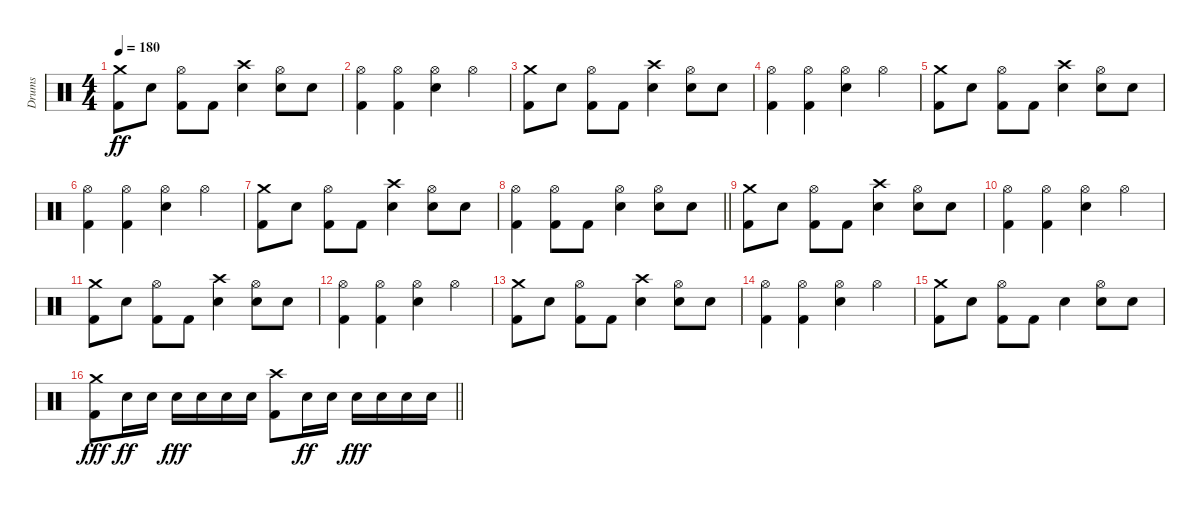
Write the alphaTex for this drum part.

\track ("Drums" "Drums") {instrument percussion}
\staff {score}
\articulation defaults
\ts (4 4)
\section ("" "")
\tempo 180
\clef neutral
\ks c
("Crash medium (hit)" "Kick (hit) 2").8{dy ff} "Electric Snare (hit)".8 ("Hi-Hat (open)" "Kick (hit) 2").8 "Kick (hit) 2".8 ("Crash high (hit)" "Electric Snare (hit)").4 ("Hi-Hat (open)" "Electric Snare (hit)").8 "Electric Snare (hit)".8 |
("Hi-Hat (open)" "Kick (hit) 2").4 ("Hi-Hat (open)" "Kick (hit) 2").4 ("Hi-Hat (open)" "Electric Snare (hit)").4 "Hi-Hat (open)".4 |
("Crash medium (hit)" "Kick (hit) 2").8 "Electric Snare (hit)".8 ("Hi-Hat (open)" "Kick (hit) 2").8 "Kick (hit) 2".8 ("Crash high (hit)" "Electric Snare (hit)").4 ("Hi-Hat (open)" "Electric Snare (hit)").8 "Electric Snare (hit)".8 |
("Hi-Hat (open)" "Kick (hit) 2").4 ("Hi-Hat (open)" "Kick (hit) 2").4 ("Hi-Hat (open)" "Electric Snare (hit)").4 "Hi-Hat (open)".4 |
("Crash medium (hit)" "Kick (hit) 2").8 "Electric Snare (hit)".8 ("Hi-Hat (open)" "Kick (hit) 2").8 "Kick (hit) 2".8 ("Crash high (hit)" "Electric Snare (hit)").4 ("Hi-Hat (open)" "Electric Snare (hit)").8 "Electric Snare (hit)".8 |
("Hi-Hat (open)" "Kick (hit) 2").4 ("Hi-Hat (open)" "Kick (hit) 2").4 ("Hi-Hat (open)" "Electric Snare (hit)").4 "Hi-Hat (open)".4 |
("Crash medium (hit)" "Kick (hit) 2").8 "Electric Snare (hit)".8 ("Hi-Hat (open)" "Kick (hit) 2").8 "Kick (hit) 2".8 ("Crash high (hit)" "Electric Snare (hit)").4 ("Hi-Hat (open)" "Electric Snare (hit)").8 "Electric Snare (hit)".8 |
\barLineRight lightlight
("Hi-Hat (open)" "Kick (hit) 2").4 ("Hi-Hat (open)" "Kick (hit) 2").8 "Kick (hit) 2".8 ("Hi-Hat (open)" "Electric Snare (hit)").4 ("Hi-Hat (open)" "Electric Snare (hit)").8 "Electric Snare (hit)".8 |
("Crash medium (hit)" "Kick (hit) 2").8 "Electric Snare (hit)".8 ("Hi-Hat (open)" "Kick (hit) 2").8 "Kick (hit) 2".8 ("Crash high (hit)" "Electric Snare (hit)").4 ("Hi-Hat (open)" "Electric Snare (hit)").8 "Electric Snare (hit)".8 |
("Hi-Hat (open)" "Kick (hit) 2").4 ("Hi-Hat (open)" "Kick (hit) 2").4 ("Hi-Hat (open)" "Electric Snare (hit)").4 "Hi-Hat (open)".4 |
("Crash medium (hit)" "Kick (hit) 2").8 "Electric Snare (hit)".8 ("Hi-Hat (open)" "Kick (hit) 2").8 "Kick (hit) 2".8 ("Crash high (hit)" "Electric Snare (hit)").4 ("Hi-Hat (open)" "Electric Snare (hit)").8 "Electric Snare (hit)".8 |
("Hi-Hat (open)" "Kick (hit) 2").4 ("Hi-Hat (open)" "Kick (hit) 2").4 ("Hi-Hat (open)" "Electric Snare (hit)").4 "Hi-Hat (open)".4 |
("Crash medium (hit)" "Kick (hit) 2").8 "Electric Snare (hit)".8 ("Hi-Hat (open)" "Kick (hit) 2").8 "Kick (hit) 2".8 ("Crash high (hit)" "Electric Snare (hit)").4 ("Hi-Hat (open)" "Electric Snare (hit)").8 "Electric Snare (hit)".8 |
("Hi-Hat (open)" "Kick (hit) 2").4 ("Hi-Hat (open)" "Kick (hit) 2").4 ("Hi-Hat (open)" "Electric Snare (hit)").4 "Hi-Hat (open)".4 |
("Crash medium (hit)" "Kick (hit) 2").8 "Electric Snare (hit)".8 ("Hi-Hat (open)" "Kick (hit) 2").8 "Kick (hit) 2".8 "Electric Snare (hit)".4 ("Hi-Hat (open)" "Electric Snare (hit)").8 "Electric Snare (hit)".8 |
\barLineRight lightlight
("Crash medium (hit)" "Kick (hit) 2").8{dy fff} "Electric Snare (hit)".16{dy ff} "Electric Snare (hit)".16 "Electric Snare (hit)".16{dy fff} "Electric Snare (hit)".16 "Electric Snare (hit)".16 "Electric Snare (hit)".16 ("Crash high (hit)" "Kick (hit) 2").8 "Electric Snare (hit)".16{dy ff} "Electric Snare (hit)".16 "Electric Snare (hit)".16{dy fff} "Electric Snare (hit)".16 "Electric Snare (hit)".16 "Electric Snare (hit)".16
